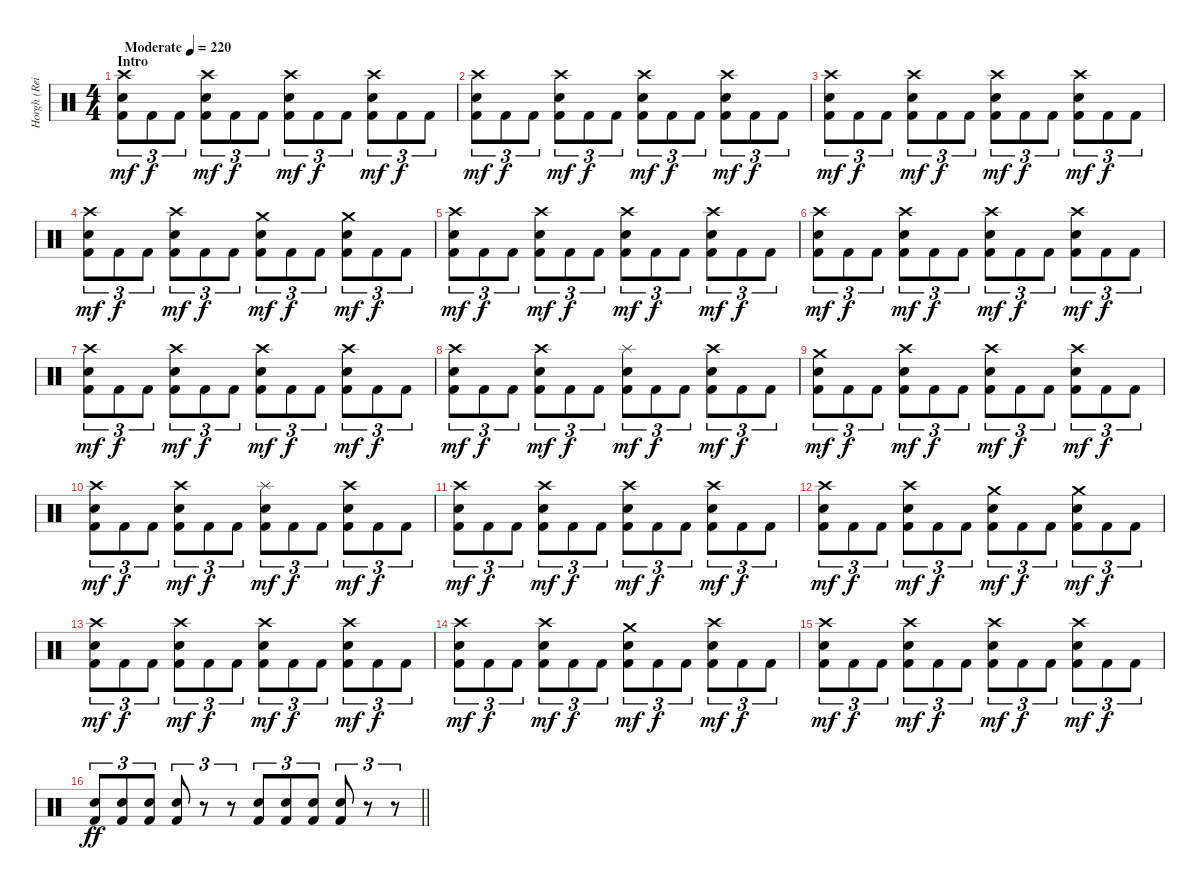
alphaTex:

\track ("Horgh (Reidar Horghagen)" "Horgh (Rei") {instrument percussion}
\staff {score}
\articulation defaults
\ts (4 4)
\section ("" "Intro")
\tempo (220 "Moderate")
\clef neutral
\ks c
("Crash high (hit)" "Snare (hit) 2" "Kick (hit) 2").8{tu (3 2) dy mf} "Kick (hit) 2".8{tu (3 2) dy f} "Kick (hit) 2".8{tu (3 2)} ("Crash high (hit)" "Snare (hit) 2" "Kick (hit) 2").8{tu (3 2) dy mf} "Kick (hit) 2".8{tu (3 2) dy f} "Kick (hit) 2".8{tu (3 2)} ("Crash high (hit)" "Snare (hit) 2" "Kick (hit) 2").8{tu (3 2) dy mf} "Kick (hit) 2".8{tu (3 2) dy f} "Kick (hit) 2".8{tu (3 2)} ("Crash high (hit)" "Snare (hit) 2" "Kick (hit) 2").8{tu (3 2) dy mf} "Kick (hit) 2".8{tu (3 2) dy f} "Kick (hit) 2".8{tu (3 2)} |
("Crash high (hit)" "Snare (hit) 2" "Kick (hit) 2").8{tu (3 2) dy mf} "Kick (hit) 2".8{tu (3 2) dy f} "Kick (hit) 2".8{tu (3 2)} ("Crash high (hit)" "Snare (hit) 2" "Kick (hit) 2").8{tu (3 2) dy mf} "Kick (hit) 2".8{tu (3 2) dy f} "Kick (hit) 2".8{tu (3 2)} ("Crash high (hit)" "Snare (hit) 2" "Kick (hit) 2").8{tu (3 2) dy mf} "Kick (hit) 2".8{tu (3 2) dy f} "Kick (hit) 2".8{tu (3 2)} ("Crash high (hit)" "Snare (hit) 2" "Kick (hit) 2").8{tu (3 2) dy mf} "Kick (hit) 2".8{tu (3 2) dy f} "Kick (hit) 2".8{tu (3 2)} |
("Crash high (hit)" "Snare (hit) 2" "Kick (hit) 2").8{tu (3 2) dy mf} "Kick (hit) 2".8{tu (3 2) dy f} "Kick (hit) 2".8{tu (3 2)} ("Crash high (hit)" "Snare (hit) 2" "Kick (hit) 2").8{tu (3 2) dy mf} "Kick (hit) 2".8{tu (3 2) dy f} "Kick (hit) 2".8{tu (3 2)} ("Crash high (hit)" "Snare (hit) 2" "Kick (hit) 2").8{tu (3 2) dy mf} "Kick (hit) 2".8{tu (3 2) dy f} "Kick (hit) 2".8{tu (3 2)} ("Crash high (hit)" "Snare (hit) 2" "Kick (hit) 2").8{tu (3 2) dy mf} "Kick (hit) 2".8{tu (3 2) dy f} "Kick (hit) 2".8{tu (3 2)} |
("Crash high (hit)" "Snare (hit) 2" "Kick (hit) 2").8{tu (3 2) dy mf} "Kick (hit) 2".8{tu (3 2) dy f} "Kick (hit) 2".8{tu (3 2)} ("Crash high (hit)" "Snare (hit) 2" "Kick (hit) 2").8{tu (3 2) dy mf} "Kick (hit) 2".8{tu (3 2) dy f} "Kick (hit) 2".8{tu (3 2)} ("Crash medium (hit)" "Snare (hit) 2" "Kick (hit) 2").8{tu (3 2) dy mf} "Kick (hit) 2".8{tu (3 2) dy f} "Kick (hit) 2".8{tu (3 2)} ("Crash medium (hit)" "Snare (hit) 2" "Kick (hit) 2").8{tu (3 2) dy mf} "Kick (hit) 2".8{tu (3 2) dy f} "Kick (hit) 2".8{tu (3 2)} |
("Crash high (hit)" "Snare (hit) 2" "Kick (hit) 2").8{tu (3 2) dy mf} "Kick (hit) 2".8{tu (3 2) dy f} "Kick (hit) 2".8{tu (3 2)} ("Crash high (hit)" "Snare (hit) 2" "Kick (hit) 2").8{tu (3 2) dy mf} "Kick (hit) 2".8{tu (3 2) dy f} "Kick (hit) 2".8{tu (3 2)} ("Crash high (hit)" "Snare (hit) 2" "Kick (hit) 2").8{tu (3 2) dy mf} "Kick (hit) 2".8{tu (3 2) dy f} "Kick (hit) 2".8{tu (3 2)} ("Crash high (hit)" "Snare (hit) 2" "Kick (hit) 2").8{tu (3 2) dy mf} "Kick (hit) 2".8{tu (3 2) dy f} "Kick (hit) 2".8{tu (3 2)} |
("Crash high (hit)" "Snare (hit) 2" "Kick (hit) 2").8{tu (3 2) dy mf} "Kick (hit) 2".8{tu (3 2) dy f} "Kick (hit) 2".8{tu (3 2)} ("Crash high (hit)" "Snare (hit) 2" "Kick (hit) 2").8{tu (3 2) dy mf} "Kick (hit) 2".8{tu (3 2) dy f} "Kick (hit) 2".8{tu (3 2)} ("Crash high (hit)" "Snare (hit) 2" "Kick (hit) 2").8{tu (3 2) dy mf} "Kick (hit) 2".8{tu (3 2) dy f} "Kick (hit) 2".8{tu (3 2)} ("Crash high (hit)" "Snare (hit) 2" "Kick (hit) 2").8{tu (3 2) dy mf} "Kick (hit) 2".8{tu (3 2) dy f} "Kick (hit) 2".8{tu (3 2)} |
("Crash high (hit)" "Snare (hit) 2" "Kick (hit) 2").8{tu (3 2) dy mf} "Kick (hit) 2".8{tu (3 2) dy f} "Kick (hit) 2".8{tu (3 2)} ("Crash high (hit)" "Snare (hit) 2" "Kick (hit) 2").8{tu (3 2) dy mf} "Kick (hit) 2".8{tu (3 2) dy f} "Kick (hit) 2".8{tu (3 2)} ("Crash high (hit)" "Snare (hit) 2" "Kick (hit) 2").8{tu (3 2) dy mf} "Kick (hit) 2".8{tu (3 2) dy f} "Kick (hit) 2".8{tu (3 2)} ("Crash high (hit)" "Snare (hit) 2" "Kick (hit) 2").8{tu (3 2) dy mf} "Kick (hit) 2".8{tu (3 2) dy f} "Kick (hit) 2".8{tu (3 2)} |
("Crash high (hit)" "Snare (hit) 2" "Kick (hit) 2").8{tu (3 2) dy mf} "Kick (hit) 2".8{tu (3 2) dy f} "Kick (hit) 2".8{tu (3 2)} ("Crash high (hit)" "Snare (hit) 2" "Kick (hit) 2").8{tu (3 2) dy mf} "Kick (hit) 2".8{tu (3 2) dy f} "Kick (hit) 2".8{tu (3 2)} ("Splash (hit)" "Snare (hit) 2" "Kick (hit) 2").8{tu (3 2) dy mf} "Kick (hit) 2".8{tu (3 2) dy f} "Kick (hit) 2".8{tu (3 2)} ("Crash high (hit)" "Snare (hit) 2" "Kick (hit) 2").8{tu (3 2) dy mf} "Kick (hit) 2".8{tu (3 2) dy f} "Kick (hit) 2".8{tu (3 2)} |
("Crash medium (hit)" "Snare (hit) 2" "Kick (hit) 2").8{tu (3 2) dy mf} "Kick (hit) 2".8{tu (3 2) dy f} "Kick (hit) 2".8{tu (3 2)} ("Crash high (hit)" "Snare (hit) 2" "Kick (hit) 2").8{tu (3 2) dy mf} "Kick (hit) 2".8{tu (3 2) dy f} "Kick (hit) 2".8{tu (3 2)} ("Crash high (hit)" "Snare (hit) 2" "Kick (hit) 2").8{tu (3 2) dy mf} "Kick (hit) 2".8{tu (3 2) dy f} "Kick (hit) 2".8{tu (3 2)} ("Crash high (hit)" "Snare (hit) 2" "Kick (hit) 2").8{tu (3 2) dy mf} "Kick (hit) 2".8{tu (3 2) dy f} "Kick (hit) 2".8{tu (3 2)} |
("Crash high (hit)" "Snare (hit) 2" "Kick (hit) 2").8{tu (3 2) dy mf} "Kick (hit) 2".8{tu (3 2) dy f} "Kick (hit) 2".8{tu (3 2)} ("Crash high (hit)" "Snare (hit) 2" "Kick (hit) 2").8{tu (3 2) dy mf} "Kick (hit) 2".8{tu (3 2) dy f} "Kick (hit) 2".8{tu (3 2)} ("Splash (hit)" "Snare (hit) 2" "Kick (hit) 2").8{tu (3 2) dy mf} "Kick (hit) 2".8{tu (3 2) dy f} "Kick (hit) 2".8{tu (3 2)} ("Crash high (hit)" "Snare (hit) 2" "Kick (hit) 2").8{tu (3 2) dy mf} "Kick (hit) 2".8{tu (3 2) dy f} "Kick (hit) 2".8{tu (3 2)} |
("Crash high (hit)" "Snare (hit) 2" "Kick (hit) 2").8{tu (3 2) dy mf} "Kick (hit) 2".8{tu (3 2) dy f} "Kick (hit) 2".8{tu (3 2)} ("Crash high (hit)" "Snare (hit) 2" "Kick (hit) 2").8{tu (3 2) dy mf} "Kick (hit) 2".8{tu (3 2) dy f} "Kick (hit) 2".8{tu (3 2)} ("Crash high (hit)" "Snare (hit) 2" "Kick (hit) 2").8{tu (3 2) dy mf} "Kick (hit) 2".8{tu (3 2) dy f} "Kick (hit) 2".8{tu (3 2)} ("Crash high (hit)" "Snare (hit) 2" "Kick (hit) 2").8{tu (3 2) dy mf} "Kick (hit) 2".8{tu (3 2) dy f} "Kick (hit) 2".8{tu (3 2)} |
("Crash high (hit)" "Snare (hit) 2" "Kick (hit) 2").8{tu (3 2) dy mf} "Kick (hit) 2".8{tu (3 2) dy f} "Kick (hit) 2".8{tu (3 2)} ("Crash high (hit)" "Snare (hit) 2" "Kick (hit) 2").8{tu (3 2) dy mf} "Kick (hit) 2".8{tu (3 2) dy f} "Kick (hit) 2".8{tu (3 2)} ("Crash medium (hit)" "Snare (hit) 2" "Kick (hit) 2").8{tu (3 2) dy mf} "Kick (hit) 2".8{tu (3 2) dy f} "Kick (hit) 2".8{tu (3 2)} ("Crash medium (hit)" "Snare (hit) 2" "Kick (hit) 2").8{tu (3 2) dy mf} "Kick (hit) 2".8{tu (3 2) dy f} "Kick (hit) 2".8{tu (3 2)} |
("Crash high (hit)" "Snare (hit) 2" "Kick (hit) 2").8{tu (3 2) dy mf} "Kick (hit) 2".8{tu (3 2) dy f} "Kick (hit) 2".8{tu (3 2)} ("Crash high (hit)" "Snare (hit) 2" "Kick (hit) 2").8{tu (3 2) dy mf} "Kick (hit) 2".8{tu (3 2) dy f} "Kick (hit) 2".8{tu (3 2)} ("Crash high (hit)" "Snare (hit) 2" "Kick (hit) 2").8{tu (3 2) dy mf} "Kick (hit) 2".8{tu (3 2) dy f} "Kick (hit) 2".8{tu (3 2)} ("Crash high (hit)" "Snare (hit) 2" "Kick (hit) 2").8{tu (3 2) dy mf} "Kick (hit) 2".8{tu (3 2) dy f} "Kick (hit) 2".8{tu (3 2)} |
("Crash high (hit)" "Snare (hit) 2" "Kick (hit) 2").8{tu (3 2) dy mf} "Kick (hit) 2".8{tu (3 2) dy f} "Kick (hit) 2".8{tu (3 2)} ("Crash high (hit)" "Snare (hit) 2" "Kick (hit) 2").8{tu (3 2) dy mf} "Kick (hit) 2".8{tu (3 2) dy f} "Kick (hit) 2".8{tu (3 2)} ("Crash medium (hit)" "Snare (hit) 2" "Kick (hit) 2").8{tu (3 2) dy mf} "Kick (hit) 2".8{tu (3 2) dy f} "Kick (hit) 2".8{tu (3 2)} ("Crash high (hit)" "Snare (hit) 2" "Kick (hit) 2").8{tu (3 2) dy mf} "Kick (hit) 2".8{tu (3 2) dy f} "Kick (hit) 2".8{tu (3 2)} |
("Crash high (hit)" "Snare (hit) 2" "Kick (hit) 2").8{tu (3 2) dy mf} "Kick (hit) 2".8{tu (3 2) dy f} "Kick (hit) 2".8{tu (3 2)} ("Crash high (hit)" "Snare (hit) 2" "Kick (hit) 2").8{tu (3 2) dy mf} "Kick (hit) 2".8{tu (3 2) dy f} "Kick (hit) 2".8{tu (3 2)} ("Crash high (hit)" "Snare (hit) 2" "Kick (hit) 2").8{tu (3 2) dy mf} "Kick (hit) 2".8{tu (3 2) dy f} "Kick (hit) 2".8{tu (3 2)} ("Crash high (hit)" "Snare (hit) 2" "Kick (hit) 2").8{tu (3 2) dy mf} "Kick (hit) 2".8{tu (3 2) dy f} "Kick (hit) 2".8{tu (3 2)} |
\barLineRight lightlight
("Snare (hit) 2" "Kick (hit) 2").8{tu (3 2) dy ff} ("Snare (hit) 2" "Kick (hit) 2").8{tu (3 2)} ("Snare (hit) 2" "Kick (hit) 2").8{tu (3 2)} ("Snare (hit) 2" "Kick (hit) 2").8{tu (3 2)} r.8{tu (3 2)} r.8{tu (3 2)} ("Snare (hit) 2" "Kick (hit) 2").8{tu (3 2)} ("Snare (hit) 2" "Kick (hit) 2").8{tu (3 2)} ("Snare (hit) 2" "Kick (hit) 2").8{tu (3 2)} ("Snare (hit) 2" "Kick (hit) 2").8{tu (3 2)} r.8{tu (3 2)} r.8{tu (3 2)}
